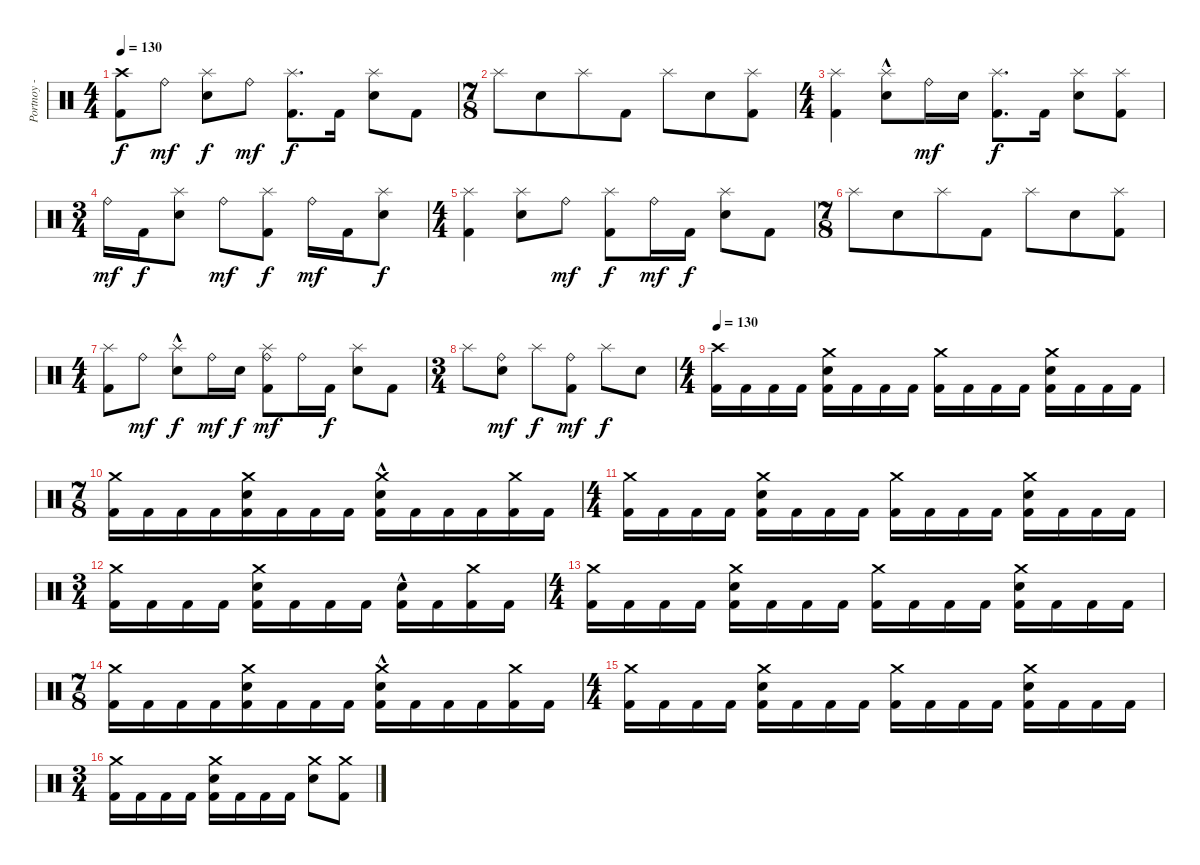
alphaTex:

\track ("Portnoy - Drums" "Portnoy - ") {instrument percussion}
\staff {score}
\articulation defaults
\ts (4 4)
\tempo 130
\clef neutral
\ks c
("Crash high (hit)" "Kick (hit) 2").8{dy f} "Ride (bell)".8{dy mf} ("Electric Snare (hit)" "Splash (hit)").8{dy f} "Ride (bell)".8{dy mf} ("Kick (hit) 2" "Splash (hit)").8{d dy f} "Kick (hit) 2".16 ("Electric Snare (hit)" "Splash (hit)").8 "Kick (hit) 2".8 |
\ts (7 8)
"Splash (hit)".8 "Electric Snare (hit)".8 "Splash (hit)".8 "Kick (hit) 2".8 "Splash (hit)".8 "Electric Snare (hit)".8 ("Kick (hit) 2" "Splash (hit)").8 |
\ts (4 4)
("Kick (hit) 2" "Splash (hit)").4 ("Electric Snare (hit)"{hac} "Splash (hit)").8 "Ride (bell)".16{dy mf} "Electric Snare (hit)".16 ("Kick (hit) 2" "Splash (hit)").8{d dy f} "Kick (hit) 2".16 ("Electric Snare (hit)" "Splash (hit)").8 ("Kick (hit) 2" "Splash (hit)").8 |
\ts (3 4)
"Ride (bell)".16{dy mf} "Kick (hit) 2".16{dy f} ("Electric Snare (hit)" "Splash (hit)").8 "Ride (bell)".8{dy mf} ("Kick (hit) 2" "Splash (hit)").8{dy f} "Ride (bell)".16{dy mf} "Kick (hit) 2".16 ("Electric Snare (hit)" "Splash (hit)").8{dy f} |
\ts (4 4)
("Kick (hit) 2" "Splash (hit)").4 ("Electric Snare (hit)" "Splash (hit)").8 "Ride (bell)".8{dy mf} ("Kick (hit) 2" "Splash (hit)").8{dy f} "Ride (bell)".16{dy mf} "Kick (hit) 2".16{dy f} ("Electric Snare (hit)" "Splash (hit)").8 "Kick (hit) 2".8 |
\ts (7 8)
"Splash (hit)".8 "Electric Snare (hit)".8 "Splash (hit)".8 "Kick (hit) 2".8 "Splash (hit)".8 "Electric Snare (hit)".8 ("Splash (hit)" "Kick (hit) 2").8 |
\ts (4 4)
("Kick (hit) 2" "Splash (hit)").8 "Ride (bell)".8{dy mf} ("Electric Snare (hit)"{hac} "Splash (hit)").8{dy f} "Ride (bell)".16{dy mf} "Electric Snare (hit)".16{dy f} ("Kick (hit) 2" "Splash (hit)" "Ride (bell)").8{dy mf} "Ride (bell)".16 "Kick (hit) 2".16{dy f} ("Electric Snare (hit)" "Splash (hit)").8 "Kick (hit) 2".8 |
\ts (3 4)
"Splash (hit)".8 ("Electric Snare (hit)" "Ride (bell)").8{dy mf} "Splash (hit)".8{dy f} ("Kick (hit) 2" "Ride (bell)").8{dy mf} "Splash (hit)".8{dy f} "Electric Snare (hit)".8 |
\ts (4 4)
\tempo 130
("Crash high (hit)" "Kick (hit) 2").16 "Kick (hit) 2".16 "Kick (hit) 2".16 "Kick (hit) 2".16 ("Kick (hit) 2" "Electric Snare (hit)" "Crash medium (hit)").16 "Kick (hit) 2".16 "Kick (hit) 2".16 "Kick (hit) 2".16 ("Kick (hit) 2" "Crash medium (hit)").16 "Kick (hit) 2".16 "Kick (hit) 2".16 "Kick (hit) 2".16 ("Kick (hit) 2" "Electric Snare (hit)" "Crash medium (hit)").16 "Kick (hit) 2".16 "Kick (hit) 2".16 "Kick (hit) 2".16 |
\ts (7 8)
("Kick (hit) 2" "Crash medium (hit)").16 "Kick (hit) 2".16 "Kick (hit) 2".16 "Kick (hit) 2".16 ("Kick (hit) 2" "Electric Snare (hit)" "Crash medium (hit)").16 "Kick (hit) 2".16 "Kick (hit) 2".16 "Kick (hit) 2".16 ("Kick (hit) 2" "Electric Snare (hit)"{hac} "Crash medium (hit)").16 "Kick (hit) 2".16 "Kick (hit) 2".16 "Kick (hit) 2".16 ("Kick (hit) 2" "Crash medium (hit)").16 "Kick (hit) 2".16 |
\ts (4 4)
("Kick (hit) 2" "Crash medium (hit)").16 "Kick (hit) 2".16 "Kick (hit) 2".16 "Kick (hit) 2".16 ("Kick (hit) 2" "Crash medium (hit)" "Electric Snare (hit)").16 "Kick (hit) 2".16 "Kick (hit) 2".16 "Kick (hit) 2".16 ("Kick (hit) 2" "Crash medium (hit)").16 "Kick (hit) 2".16 "Kick (hit) 2".16 "Kick (hit) 2".16 ("Kick (hit) 2" "Electric Snare (hit)" "Crash medium (hit)").16 "Kick (hit) 2".16 "Kick (hit) 2".16 "Kick (hit) 2".16 |
\ts (3 4)
("Kick (hit) 2" "Crash medium (hit)").16 "Kick (hit) 2".16 "Kick (hit) 2".16 "Kick (hit) 2".16 ("Kick (hit) 2" "Electric Snare (hit)" "Crash medium (hit)").16 "Kick (hit) 2".16 "Kick (hit) 2".16 "Kick (hit) 2".16 ("Kick (hit) 2" "Electric Snare (hit)"{hac}).16 "Kick (hit) 2".16 ("Kick (hit) 2" "Crash medium (hit)").16 "Kick (hit) 2".16 |
\ts (4 4)
("Kick (hit) 2" "Crash medium (hit)").16 "Kick (hit) 2".16 "Kick (hit) 2".16 "Kick (hit) 2".16 ("Kick (hit) 2" "Electric Snare (hit)" "Crash medium (hit)").16 "Kick (hit) 2".16 "Kick (hit) 2".16 "Kick (hit) 2".16 ("Kick (hit) 2" "Crash medium (hit)").16 "Kick (hit) 2".16 "Kick (hit) 2".16 "Kick (hit) 2".16 ("Kick (hit) 2" "Electric Snare (hit)" "Crash medium (hit)").16 "Kick (hit) 2".16 "Kick (hit) 2".16 "Kick (hit) 2".16 |
\ts (7 8)
("Kick (hit) 2" "Crash medium (hit)").16 "Kick (hit) 2".16 "Kick (hit) 2".16 "Kick (hit) 2".16 ("Kick (hit) 2" "Electric Snare (hit)" "Crash medium (hit)").16 "Kick (hit) 2".16 "Kick (hit) 2".16 "Kick (hit) 2".16 ("Kick (hit) 2" "Electric Snare (hit)"{hac} "Crash medium (hit)").16 "Kick (hit) 2".16 "Kick (hit) 2".16 "Kick (hit) 2".16 ("Kick (hit) 2" "Crash medium (hit)").16 "Kick (hit) 2".16 |
\ts (4 4)
("Kick (hit) 2" "Crash medium (hit)").16 "Kick (hit) 2".16 "Kick (hit) 2".16 "Kick (hit) 2".16 ("Kick (hit) 2" "Crash medium (hit)" "Electric Snare (hit)").16 "Kick (hit) 2".16 "Kick (hit) 2".16 "Kick (hit) 2".16 ("Kick (hit) 2" "Crash medium (hit)").16 "Kick (hit) 2".16 "Kick (hit) 2".16 "Kick (hit) 2".16 ("Kick (hit) 2" "Electric Snare (hit)" "Crash medium (hit)").16 "Kick (hit) 2".16 "Kick (hit) 2".16 "Kick (hit) 2".16 |
\ts (3 4)
("Kick (hit) 2" "Crash medium (hit)").16 "Kick (hit) 2".16 "Kick (hit) 2".16 "Kick (hit) 2".16 ("Kick (hit) 2" "Electric Snare (hit)" "Crash medium (hit)").16 "Kick (hit) 2".16 "Kick (hit) 2".16 "Kick (hit) 2".16 ("Crash medium (hit)" "Electric Snare (hit)").8 ("Crash medium (hit)" "Kick (hit) 2").8
